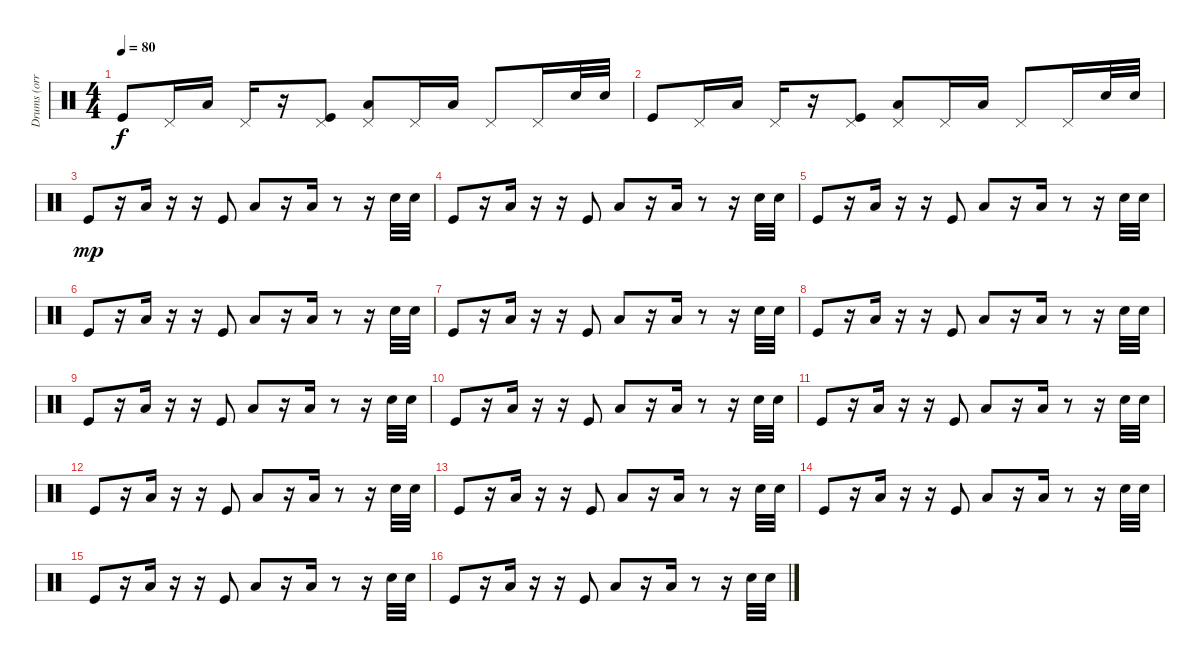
\track ("Drums (orri páll dırason)" "Drums (orr") {instrument percussion}
\staff {score}
\articulation defaults
\ts (4 4)
\tempo 80
\clef neutral
\ks c "Kick (hit)".8{dy f} "Pedal Hi-Hat (hit)".16 "Low Floor Tom (hit)".16 "Pedal Hi-Hat (hit)".16
r.16 ("Pedal Hi-Hat (hit)" "Kick (hit)").8 ("Pedal Hi-Hat (hit)" "Low Floor Tom (hit)").8 "Pedal Hi-Hat (hit)".16 "Low Floor Tom (hit)".16 "Pedal Hi-Hat (hit)".8 "Pedal Hi-Hat (hit)".16 "Electric Snare (hit)".32 "Electric Snare (hit)".32 |
"Kick (hit)".8 "Pedal Hi-Hat (hit)".16 "Low Floor Tom (hit)".16 "Pedal Hi-Hat (hit)".16 r.16 ("Pedal Hi-Hat (hit)" "Kick (hit)").8 ("Pedal Hi-Hat (hit)" "Low Floor Tom (hit)").8 "Pedal Hi-Hat (hit)".16 "Low Floor Tom (hit)".16 "Pedal Hi-Hat (hit)".8 "Pedal Hi-Hat (hit)".16 "Electric Snare (hit)".32 "Electric Snare (hit)".32 |
"Kick (hit)".8{dy mp} r.16 "Low Tom (hit)".16 r.16 r.16 "Kick (hit)".8 "Low Tom (hit)".8 r.16 "Low Tom (hit)".16 r.8 r.16 "Electric Snare (hit)".32 "Electric Snare (hit)".32 |
"Kick (hit)".8 r.16 "Low Tom (hit)".16 r.16 r.16 "Kick (hit)".8 "Low Tom (hit)".8 r.16 "Low Tom (hit)".16 r.8 r.16 "Electric Snare (hit)".32 "Electric Snare (hit)".32 |
"Kick (hit)".8 r.16 "Low Tom (hit)".16 r.16 r.16 "Kick (hit)".8 "Low Tom (hit)".8 r.16 "Low Tom (hit)".16 r.8 r.16 "Electric Snare (hit)".32 "Electric Snare (hit)".32 |
"Kick (hit)".8 r.16 "Low Tom (hit)".16 r.16 r.16 "Kick (hit)".8 "Low Tom (hit)".8 r.16 "Low Tom (hit)".16 r.8 r.16 "Electric Snare (hit)".32 "Electric Snare (hit)".32 |
"Kick (hit)".8 r.16 "Low Tom (hit)".16 r.16 r.16 "Kick (hit)".8 "Low Tom (hit)".8 r.16 "Low Tom (hit)".16 r.8 r.16 "Electric Snare (hit)".32 "Electric Snare (hit)".32 |
"Kick (hit)".8 r.16 "Low Tom (hit)".16 r.16 r.16 "Kick (hit)".8 "Low Tom (hit)".8 r.16 "Low Tom (hit)".16 r.8 r.16 "Electric Snare (hit)".32 "Electric Snare (hit)".32 |
"Kick (hit)".8 r.16 "Low Tom (hit)".16 r.16 r.16 "Kick (hit)".8 "Low Tom (hit)".8 r.16 "Low Tom (hit)".16 r.8 r.16 "Electric Snare (hit)".32 "Electric Snare (hit)".32 |
"Kick (hit)".8 r.16 "Low Tom (hit)".16 r.16 r.16 "Kick (hit)".8 "Low Tom (hit)".8 r.16 "Low Tom (hit)".16 r.8 r.16 "Electric Snare (hit)".32 "Electric Snare (hit)".32 |
"Kick (hit)".8 r.16 "Low Tom (hit)".16 r.16 r.16 "Kick (hit)".8 "Low Tom (hit)".8 r.16 "Low Tom (hit)".16 r.8 r.16 "Electric Snare (hit)".32 "Electric Snare (hit)".32 |
"Kick (hit)".8 r.16 "Low Tom (hit)".16 r.16 r.16 "Kick (hit)".8 "Low Tom (hit)".8 r.16 "Low Tom (hit)".16 r.8 r.16 "Electric Snare (hit)".32 "Electric Snare (hit)".32 |
"Kick (hit)".8 r.16 "Low Tom (hit)".16 r.16 r.16 "Kick (hit)".8 "Low Tom (hit)".8 r.16 "Low Tom (hit)".16 r.8 r.16 "Electric Snare (hit)".32 "Electric Snare (hit)".32 |
"Kick (hit)".8 r.16 "Low Tom (hit)".16 r.16 r.16 "Kick (hit)".8 "Low Tom (hit)".8 r.16 "Low Tom (hit)".16 r.8 r.16 "Electric Snare (hit)".32 "Electric Snare (hit)".32 |
"Kick (hit)".8 r.16 "Low Tom (hit)".16 r.16 r.16 "Kick (hit)".8 "Low Tom (hit)".8 r.16 "Low Tom (hit)".16 r.8 r.16 "Electric Snare (hit)".32 "Electric Snare (hit)".32 |
"Kick (hit)".8 r.16 "Low Tom (hit)".16 r.16 r.16 "Kick (hit)".8 "Low Tom (hit)".8 r.16 "Low Tom (hit)".16 r.8 r.16 "Electric Snare (hit)".32 "Electric Snare (hit)".32
